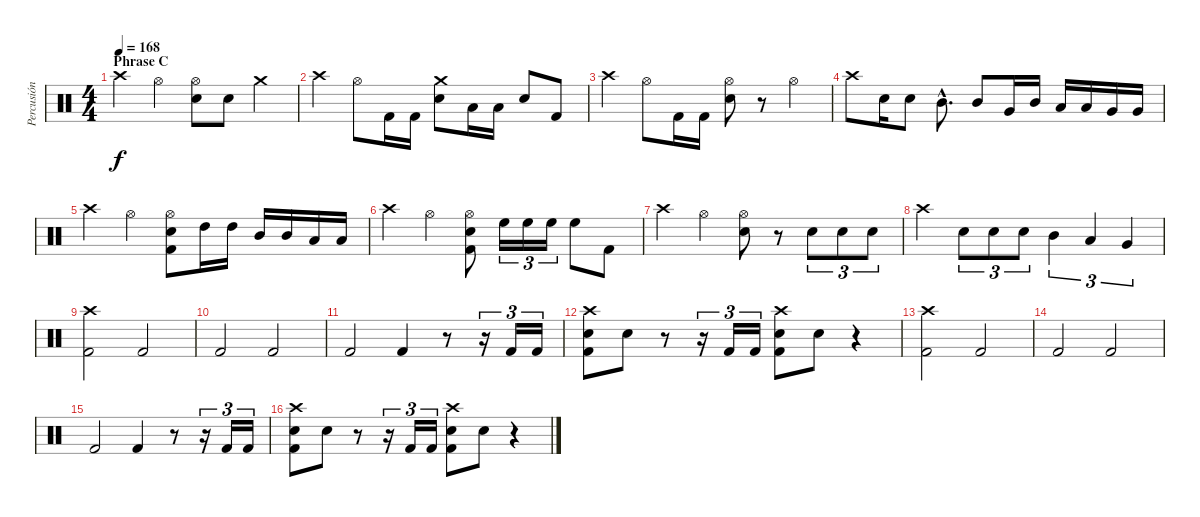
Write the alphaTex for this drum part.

\track ("Percusión" "Percusión") {instrument percussion}
\staff {score}
\articulation defaults
\ts (4 4)
\section ("" "Phrase C")
\tempo 168
\clef neutral
\ks c "Crash high (hit)".4{dy f} "Hi-Hat (open)".4
("Hi-Hat (open)" "Electric Snare (hit)").8 "Electric Snare (hit)".8 "Crash medium (hit)".4 |
"Crash high (hit)".4 "Hi-Hat (open)".8 "Kick (hit) 2".16 "Kick (hit) 2".16 ("Crash medium (hit)" "Electric Snare (hit)").8 "Low Tom (hit)".16 "Low Tom (hit)".16 "Electric Snare (hit)".8 "Kick (hit) 2".8 |
"Crash high (hit)".4 "Hi-Hat (open)".8 "Kick (hit) 2".16 "Kick (hit) 2".16 ("Hi-Hat (open)" "Electric Snare (hit)").8 r.8 "Hi-Hat (open)".4 |
"Crash high (hit)".8 "Electric Snare (hit)".16 "Electric Snare (hit)".8 "Mid Tom (hit)"{hac}.8{d} "Mid Tom (hit)".8 "Very Low Tom (hit)".16 "Mid Tom (hit)".16 "Low Tom (hit)".16 "Low Tom (hit)".16 "Very Low Tom (hit)".16 "Very Low Tom (hit)".16 |
"Crash high (hit)".4 "Hi-Hat (open)".4 ("Hi-Hat (open)" "Electric Snare (hit)" "Kick (hit) 2").8 "High Tom (hit)".16 "High Tom (hit)".16 "Mid Tom (hit)".16 "Mid Tom (hit)".16 "Low Tom (hit)".16 "Low Tom (hit)".16 |
"Crash high (hit)".4 "Hi-Hat (open)".4 ("Hi-Hat (open)" "Electric Snare (hit)" "Kick (hit) 2").8 "High Floor Tom (hit)".16{tu (3 2)} "High Floor Tom (hit)".16{tu (3 2)} "High Floor Tom (hit)".16{tu (3 2)} "High Floor Tom (hit)".8 "Kick (hit) 2".8 |
"Crash high (hit)".4 "Hi-Hat (open)".4 ("Hi-Hat (open)" "Electric Snare (hit)").8 r.8 "Electric Snare (hit)".8{tu (3 2)} "Electric Snare (hit)".8{tu (3 2)} "Electric Snare (hit)".8{tu (3 2)} |
"Crash high (hit)".4 "Electric Snare (hit)".8{tu (3 2)} "Electric Snare (hit)".8{tu (3 2)} "Electric Snare (hit)".8{tu (3 2)} "Mid Tom (hit)".4{tu (3 2)} "Low Tom (hit)".4{tu (3 2)} "Very Low Tom (hit)".4{tu (3 2)} |
("Crash high (hit)" "Kick (hit) 2").2 "Kick (hit) 2".2 |
"Kick (hit) 2".2 "Kick (hit) 2".2 |
"Kick (hit) 2".2 "Kick (hit) 2".4 r.8 r.16{tu (3 2)} "Kick (hit) 2".16{tu (3 2)} "Kick (hit) 2".16{tu (3 2)} |
("Crash high (hit)" "Electric Snare (hit)" "Kick (hit) 2").8 "Electric Snare (hit)".8 r.8 r.16{tu (3 2)} "Kick (hit) 2".16{tu (3 2)} "Kick (hit) 2".16{tu (3 2)} ("Crash high (hit)" "Electric Snare (hit)" "Kick (hit) 2").8 "Electric Snare (hit)".8 r.4 |
("Crash high (hit)" "Kick (hit) 2").2 "Kick (hit) 2".2 |
"Kick (hit) 2".2 "Kick (hit) 2".2 |
"Kick (hit) 2".2 "Kick (hit) 2".4 r.8 r.16{tu (3 2)} "Kick (hit) 2".16{tu (3 2)} "Kick (hit) 2".16{tu (3 2)} |
("Crash high (hit)" "Electric Snare (hit)" "Kick (hit) 2").8 "Electric Snare (hit)".8 r.8 r.16{tu (3 2)} "Kick (hit) 2".16{tu (3 2)} "Kick (hit) 2".16{tu (3 2)} ("Crash high (hit)" "Electric Snare (hit)" "Kick (hit) 2").8 "Electric Snare (hit)".8 r.4
